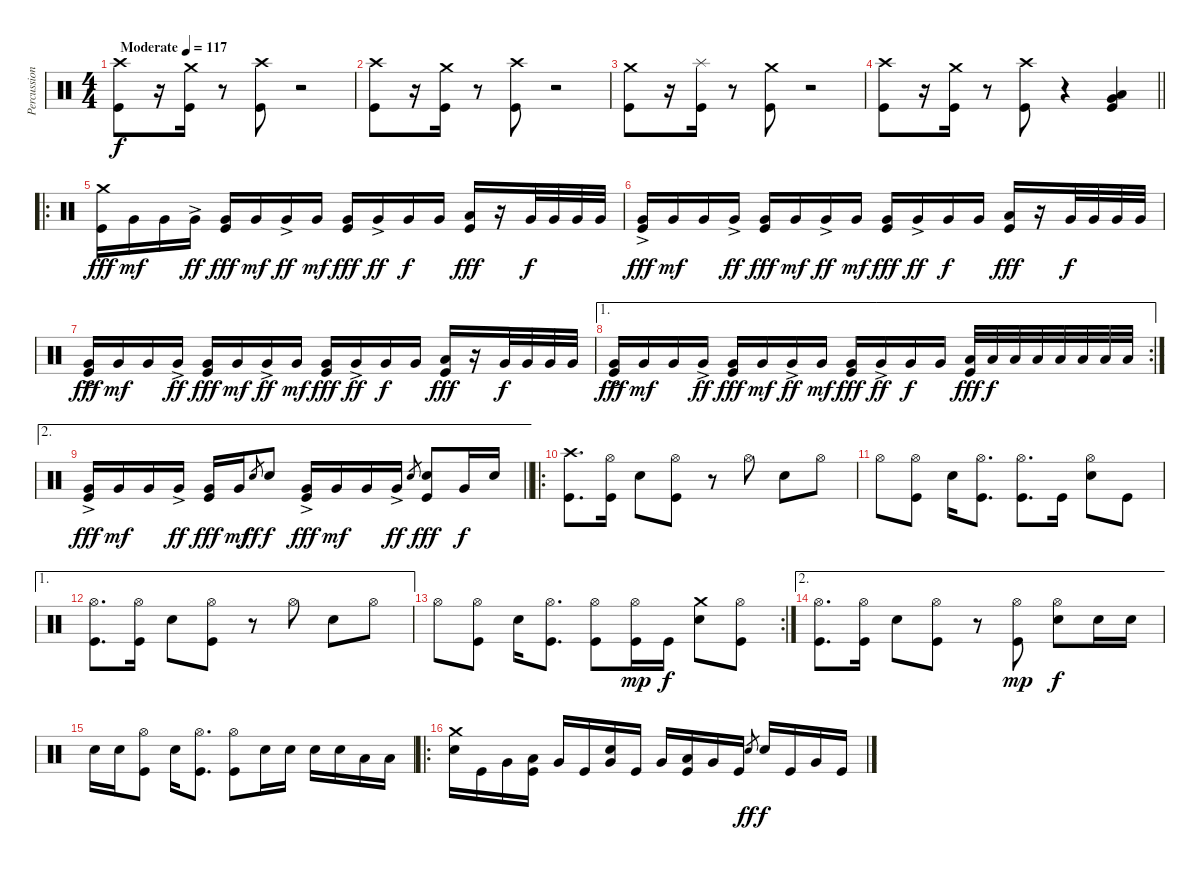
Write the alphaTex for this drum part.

\track ("Percussion" "Percussion") {instrument percussion}
\staff {score}
\articulation defaults
\ts (4 4)
\tempo (117 "Moderate")
\clef neutral
\ks c
("Crash high (hit)" "Kick (hit)").8{dy f} r.16 ("Crash medium (hit)" "Kick (hit)").16 r.8 ("Crash high (hit)" "Kick (hit)").8 r.2 |
("Crash high (hit)" "Kick (hit)").8 r.16 ("Crash medium (hit)" "Kick (hit)").16 r.8 ("Crash high (hit)" "Kick (hit)").8 r.2 |
("Crash medium (hit)" "Kick (hit)").8 r.16 ("Splash (hit)" "Kick (hit)").16 r.8 ("Crash medium (hit)" "Kick (hit)").8 r.2 |
\barLineRight lightlight
("Crash high (hit)" "Kick (hit)").8 r.16 ("Crash medium (hit)" "Kick (hit)").16 r.8 ("Crash high (hit)" "Kick (hit)").8 r.4 ("Very Low Tom (hit)" "Low Floor Tom (hit)" "Kick (hit)").4 |
\ro
("Crash medium (hit)" "Kick (hit)").16{dy fff} "Very Low Tom (hit)".16{dy mf} "Very Low Tom (hit)".16 "Very Low Tom (hit)"{ac}.16{dy ff} ("Very Low Tom (hit)" "Kick (hit)").16{dy fff} "Very Low Tom (hit)".16{dy mf} "Very Low Tom (hit)"{ac}.16{dy ff} "Very Low Tom (hit)".16{dy mf} ("Very Low Tom (hit)" "Kick (hit)").16{dy fff} "Very Low Tom (hit)"{ac}.16{dy ff} "Very Low Tom (hit)".16{dy f} "Very Low Tom (hit)".16 ("Low Floor Tom (hit)" "Kick (hit)").16{dy fff} r.16 "Very Low Tom (hit)".32{dy f} "Very Low Tom (hit)".32 "Very Low Tom (hit)".32 "Very Low Tom (hit)".32 |
("Very Low Tom (hit)"{ac} "Kick (hit)").16{dy fff} "Very Low Tom (hit)".16{dy mf} "Very Low Tom (hit)".16 "Very Low Tom (hit)"{ac}.16{dy ff} ("Very Low Tom (hit)" "Kick (hit)").16{dy fff} "Very Low Tom (hit)".16{dy mf} "Very Low Tom (hit)"{ac}.16{dy ff} "Very Low Tom (hit)".16{dy mf} ("Very Low Tom (hit)" "Kick (hit)").16{dy fff} "Very Low Tom (hit)"{ac}.16{dy ff} "Very Low Tom (hit)".16{dy f} "Very Low Tom (hit)".16 ("Low Floor Tom (hit)" "Kick (hit)").16{dy fff} r.16 "Very Low Tom (hit)".32{dy f} "Very Low Tom (hit)".32 "Very Low Tom (hit)".32 "Very Low Tom (hit)".32 |
("Very Low Tom (hit)"{ac} "Kick (hit)").16{dy fff} "Very Low Tom (hit)".16{dy mf} "Very Low Tom (hit)".16 "Very Low Tom (hit)"{ac}.16{dy ff} ("Very Low Tom (hit)" "Kick (hit)").16{dy fff} "Very Low Tom (hit)".16{dy mf} "Very Low Tom (hit)"{ac}.16{dy ff} "Very Low Tom (hit)".16{dy mf} ("Very Low Tom (hit)" "Kick (hit)").16{dy fff} "Very Low Tom (hit)"{ac}.16{dy ff} "Very Low Tom (hit)".16{dy f} "Very Low Tom (hit)".16 ("Low Floor Tom (hit)" "Kick (hit)").16{dy fff} r.16 "Very Low Tom (hit)".32{dy f} "Very Low Tom (hit)".32 "Very Low Tom (hit)".32 "Very Low Tom (hit)".32 |
\ae 1
\rc 2
("Very Low Tom (hit)"{ac} "Kick (hit)").16{dy fff} "Very Low Tom (hit)".16{dy mf} "Very Low Tom (hit)".16 "Very Low Tom (hit)"{ac}.16{dy ff} ("Very Low Tom (hit)" "Kick (hit)").16{dy fff} "Very Low Tom (hit)".16{dy mf} "Very Low Tom (hit)"{ac}.16{dy ff} "Very Low Tom (hit)".16{dy mf} ("Very Low Tom (hit)" "Kick (hit)").16{dy fff} "Very Low Tom (hit)"{ac}.16{dy ff} "Very Low Tom (hit)".16{dy f} "Very Low Tom (hit)".16 ("Low Floor Tom (hit)" "Kick (hit)").32{dy fff} "Low Floor Tom (hit)".32{dy f} "Low Floor Tom (hit)".32 "Low Floor Tom (hit)".32 "Low Floor Tom (hit)".32 "Low Floor Tom (hit)".32 "Low Floor Tom (hit)".32 "Low Floor Tom (hit)".32 |
\ae 2
\barLineRight lightlight
("Very Low Tom (hit)"{ac} "Kick (hit)").16{dy fff} "Very Low Tom (hit)".16{dy mf} "Very Low Tom (hit)".16 "Very Low Tom (hit)"{ac}.16{dy ff} ("Very Low Tom (hit)" "Kick (hit)").16{dy fff} "Very Low Tom (hit)".16{dy mf} "Snare (hit) 2".8{gr dy ff} "Snare (hit) 2".8{dy f} ("Very Low Tom (hit)"{ac} "Kick (hit)").16{dy fff} "Very Low Tom (hit)".16{dy mf} "Very Low Tom (hit)".16 "Very Low Tom (hit)"{ac}.16{dy ff} "Snare (hit) 2".8{gr} ("Snare (hit) 2" "Kick (hit)").8{dy fff} "Very Low Tom (hit)".16{dy f} "Snare (hit) 2".16 |
\ro
("Crash high (hit)" "Kick (hit)").8{d} ("Hi-Hat (open)" "Kick (hit)").16 "Snare (hit) 2".8 ("Hi-Hat (open)" "Kick (hit)").8 r.8 "Hi-Hat (open)".8 "Snare (hit) 2".8 "Hi-Hat (open)".8 |
"Hi-Hat (open)".8 ("Hi-Hat (open)" "Kick (hit)").8 "Snare (hit) 2".16 ("Hi-Hat (open)" "Kick (hit)").8{d} ("Hi-Hat (open)" "Kick (hit)").8{d} "Kick (hit)".16 ("Hi-Hat (open)" "Snare (hit) 2").8 "Kick (hit)".8 |
\ae 1
("Hi-Hat (open)" "Kick (hit)").8{d} ("Hi-Hat (open)" "Kick (hit)").16 "Snare (hit) 2".8 ("Hi-Hat (open)" "Kick (hit)").8 r.8 "Hi-Hat (open)".8 "Snare (hit) 2".8 "Hi-Hat (open)".8 |
\rc 2 "Hi-Hat (open)".8
("Hi-Hat (open)" "Kick (hit)").8 "Snare (hit) 2".16 ("Hi-Hat (open)" "Kick (hit)").8{d} ("Hi-Hat (open)" "Kick (hit)").8 ("Hi-Hat (open)" "Kick (hit)").16{dy mp} "Kick (hit)".16{dy f} ("Crash medium (hit)" "Snare (hit) 2").8 ("Hi-Hat (open)" "Kick (hit)").8 |
\ae 2
("Hi-Hat (open)" "Kick (hit)").8{d} ("Hi-Hat (open)" "Kick (hit)").16 "Snare (hit) 2".8 ("Hi-Hat (open)" "Kick (hit)").8 r.8 ("Hi-Hat (open)" "Kick (hit)").8{dy mp} ("Hi-Hat (open)" "Snare (hit) 2").8{dy f} "Snare (hit) 2".16 "Snare (hit) 2".16 |
"Snare (hit) 2".16 "Snare (hit) 2".16 ("Hi-Hat (open)" "Kick (hit)").8 "Snare (hit) 2".16 ("Hi-Hat (open)" "Kick (hit)").8{d} ("Hi-Hat (open)" "Kick (hit)").8 "Snare (hit) 2".16 "Snare (hit) 2".16 "Snare (hit) 2".16 "Snare (hit) 2".16 "Low Tom (hit)".16 "Low Tom (hit)".16 |
\ro
("Crash medium (hit)" "Snare (hit) 2").16 "Kick (hit)".16 "Very Low Tom (hit)".16 ("Low Tom (hit)" "Kick (hit)").16 "Very Low Tom (hit)".16 "Kick (hit)".16 ("Snare (hit) 2" "Very Low Tom (hit)").16 "Kick (hit)".16 "Very Low Tom (hit)".16 ("Low Tom (hit)" "Kick (hit)").16 "Very Low Tom (hit)".16 "Kick (hit)".16 "Snare (hit) 2".8{gr dy ff} "Snare (hit) 2".16{dy f} "Kick (hit)".16 "Very Low Tom (hit)".16 "Kick (hit)".16
